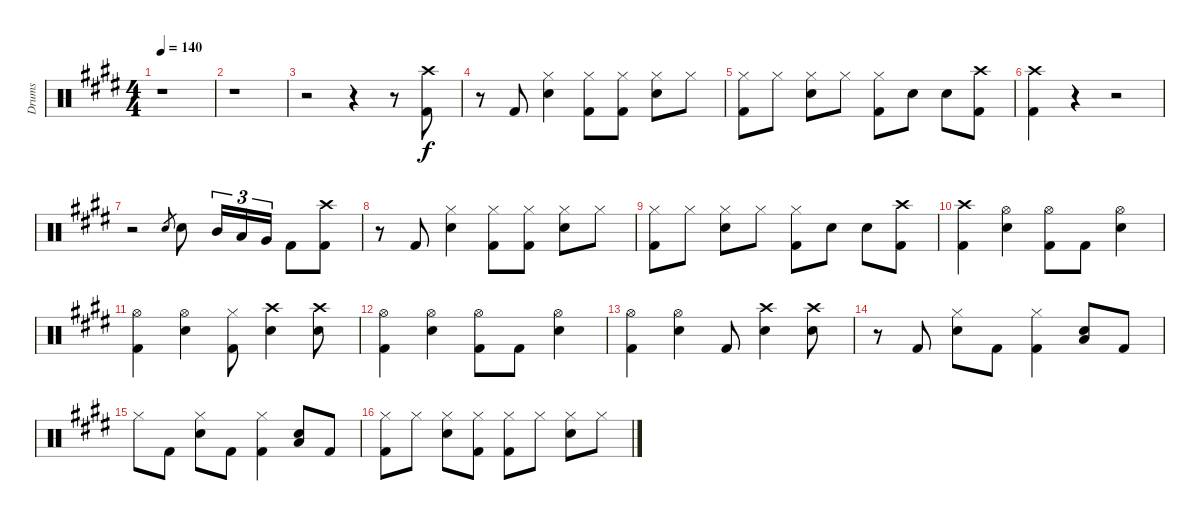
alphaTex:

\track ("Drums" "Drums") {instrument percussion}
\staff {score}
\articulation defaults
\ts (4 4)
\tempo 140
\clef neutral
\ks e
r.1{dy f} |
r.1 |
r.2 r.4 r.8 ("Crash high (hit)" "Kick (hit) 2").8 |
r.8 "Kick (hit) 2".8 ("Hi-Hat (closed)" "Electric Snare (hit)").4 ("Hi-Hat (closed)" "Kick (hit) 2").8 ("Hi-Hat (closed)" "Kick (hit) 2").8 ("Hi-Hat (closed)" "Electric Snare (hit)").8 "Hi-Hat (closed)".8 |
("Hi-Hat (closed)" "Kick (hit) 2").8 "Hi-Hat (closed)".8 ("Hi-Hat (closed)" "Electric Snare (hit)").8 "Hi-Hat (closed)".8 ("Hi-Hat (closed)" "Kick (hit) 2").8 "Electric Snare (hit)".8 "Electric Snare (hit)".8 ("Crash high (hit)" "Kick (hit) 2").8 |
("Crash high (hit)" "Kick (hit) 2").4 r.4 r.2 |
r.2 "Electric Snare (hit)".8{gr} "Electric Snare (hit)".8 "Mid Tom (hit)".16{tu (3 2)} "Low Tom (hit)".16{tu (3 2)} "Very Low Tom (hit)".16{tu (3 2)} "Kick (hit) 2".8 ("Crash high (hit)" "Kick (hit) 2").8 |
r.8 "Kick (hit) 2".8 ("Hi-Hat (closed)" "Electric Snare (hit)").4 ("Hi-Hat (closed)" "Kick (hit) 2").8 ("Hi-Hat (closed)" "Kick (hit) 2").8 ("Hi-Hat (closed)" "Electric Snare (hit)").8 "Hi-Hat (closed)".8 |
("Hi-Hat (closed)" "Kick (hit) 2").8 "Hi-Hat (closed)".8 ("Hi-Hat (closed)" "Electric Snare (hit)").8 "Hi-Hat (closed)".8 ("Hi-Hat (closed)" "Kick (hit) 2").8 "Electric Snare (hit)".8 "Electric Snare (hit)".8 ("Crash high (hit)" "Kick (hit) 2").8 |
("Crash high (hit)" "Kick (hit) 2").4 ("Hi-Hat (open)" "Electric Snare (hit)").4 ("Hi-Hat (open)" "Kick (hit) 2").8 "Kick (hit) 2".8 ("Hi-Hat (open)" "Electric Snare (hit)").4 |
("Hi-Hat (open)" "Kick (hit) 2").4 ("Hi-Hat (open)" "Electric Snare (hit)").4 ("Hi-Hat (closed)" "Kick (hit) 2").8 ("Crash high (hit)" "Electric Snare (hit)").4 ("Crash high (hit)" "Electric Snare (hit)").8 |
("Hi-Hat (open)" "Kick (hit) 2").4 ("Hi-Hat (open)" "Electric Snare (hit)").4 ("Hi-Hat (open)" "Kick (hit) 2").8 "Kick (hit) 2".8 ("Hi-Hat (open)" "Electric Snare (hit)").4 |
("Hi-Hat (open)" "Kick (hit) 2").4 ("Hi-Hat (open)" "Electric Snare (hit)").4 "Kick (hit) 2".8 ("Crash high (hit)" "Electric Snare (hit)").4 ("Crash high (hit)" "Electric Snare (hit)").8 |
r.8 "Kick (hit) 2".8 ("Hi-Hat (closed)" "Electric Snare (hit)").8 "Kick (hit) 2".8 ("Hi-Hat (closed)" "Kick (hit) 2").4 ("Electric Snare (hit)" "Low Tom (hit)").8 "Kick (hit) 2".8 |
"Hi-Hat (closed)".8 "Kick (hit) 2".8 ("Hi-Hat (closed)" "Electric Snare (hit)").8 "Kick (hit) 2".8 ("Hi-Hat (closed)" "Kick (hit) 2").4 ("Electric Snare (hit)" "Low Tom (hit)").8 "Kick (hit) 2".8 |
("Hi-Hat (closed)" "Kick (hit) 2").8 "Hi-Hat (closed)".8 ("Hi-Hat (closed)" "Electric Snare (hit)").8 ("Hi-Hat (closed)" "Kick (hit) 2").8 ("Hi-Hat (closed)" "Kick (hit) 2").8 "Hi-Hat (closed)".8 ("Hi-Hat (closed)" "Electric Snare (hit)").8 "Hi-Hat (closed)".8
